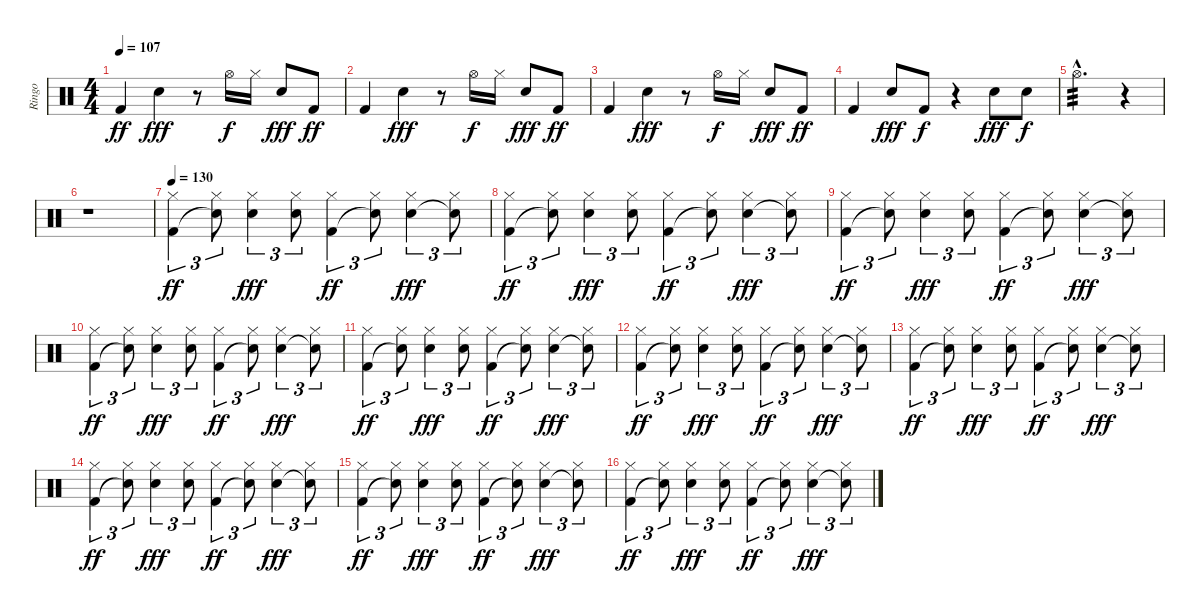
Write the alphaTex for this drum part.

\track ("Ringo" "Ringo") {instrument percussion}
\staff {score}
\articulation defaults
\ts (4 4)
\tempo 107
\clef neutral
\ks c "Kick (hit) 2".4{dy ff} "Snare (hit) 2".4{dy fff}
r.8 "Hi-Hat (open)".16{dy f} "Hi-Hat (closed)".16 "Snare (hit) 2".8{dy fff} "Kick (hit) 2".8{dy ff} |
"Kick (hit) 2".4 "Snare (hit) 2".4{dy fff} r.8 "Hi-Hat (open)".16{dy f} "Hi-Hat (closed)".16 "Snare (hit) 2".8{dy fff} "Kick (hit) 2".8{dy ff} |
"Kick (hit) 2".4 "Snare (hit) 2".4{dy fff} r.8 "Hi-Hat (open)".16{dy f} "Hi-Hat (closed)".16 "Snare (hit) 2".8{dy fff} "Kick (hit) 2".8{dy ff} |
"Kick (hit) 2".4 "Snare (hit) 2".8{dy fff} "Kick (hit) 2".8{dy f} r.4 "Snare (hit) 2".8{dy fff} "Snare (hit) 2".8{dy f} |
"Hi-Hat (open)"{hac}.2{d tp 3} r.4 |
r.1 |
\tempo 130
("Hi-Hat (closed)" "Kick (hit) 2").4{tu (3 2) dy ff} ("Hi-Hat (closed)" "Snare (hit)"{t}).8{tu (3 2)} ("Hi-Hat (closed)" "Electric Snare (hit)").4{tu (3 2) dy fff} ("Hi-Hat (closed)" "Electric Snare (hit)").8{tu (3 2)} ("Hi-Hat (closed)" "Kick (hit) 2").4{tu (3 2) dy ff} ("Hi-Hat (closed)" "Snare (hit)"{t}).8{tu (3 2)} ("Hi-Hat (closed)" "Electric Snare (hit)").4{tu (3 2) dy fff} ("Hi-Hat (closed)" "Snare (hit)"{t}).8{tu (3 2)} |
("Hi-Hat (closed)" "Kick (hit) 2").4{tu (3 2) dy ff} ("Hi-Hat (closed)" "Snare (hit)"{t}).8{tu (3 2)} ("Hi-Hat (closed)" "Electric Snare (hit)").4{tu (3 2) dy fff} ("Hi-Hat (closed)" "Electric Snare (hit)").8{tu (3 2)} ("Hi-Hat (closed)" "Kick (hit) 2").4{tu (3 2) dy ff} ("Hi-Hat (closed)" "Snare (hit)"{t}).8{tu (3 2)} ("Hi-Hat (closed)" "Electric Snare (hit)").4{tu (3 2) dy fff} ("Hi-Hat (closed)" "Snare (hit)"{t}).8{tu (3 2)} |
("Hi-Hat (closed)" "Kick (hit) 2").4{tu (3 2) dy ff} ("Hi-Hat (closed)" "Snare (hit)"{t}).8{tu (3 2)} ("Hi-Hat (closed)" "Electric Snare (hit)").4{tu (3 2) dy fff} ("Hi-Hat (closed)" "Electric Snare (hit)").8{tu (3 2)} ("Hi-Hat (closed)" "Kick (hit) 2").4{tu (3 2) dy ff} ("Hi-Hat (closed)" "Snare (hit)"{t}).8{tu (3 2)} ("Hi-Hat (closed)" "Electric Snare (hit)").4{tu (3 2) dy fff} ("Hi-Hat (closed)" "Snare (hit)"{t}).8{tu (3 2)} |
("Hi-Hat (closed)" "Kick (hit) 2").4{tu (3 2) dy ff} ("Hi-Hat (closed)" "Snare (hit)"{t}).8{tu (3 2)} ("Hi-Hat (closed)" "Electric Snare (hit)").4{tu (3 2) dy fff} ("Hi-Hat (closed)" "Electric Snare (hit)").8{tu (3 2)} ("Hi-Hat (closed)" "Kick (hit) 2").4{tu (3 2) dy ff} ("Hi-Hat (closed)" "Snare (hit)"{t}).8{tu (3 2)} ("Hi-Hat (closed)" "Electric Snare (hit)").4{tu (3 2) dy fff} ("Hi-Hat (closed)" "Snare (hit)"{t}).8{tu (3 2)} |
("Hi-Hat (closed)" "Kick (hit) 2").4{tu (3 2) dy ff} ("Hi-Hat (closed)" "Snare (hit)"{t}).8{tu (3 2)} ("Hi-Hat (closed)" "Electric Snare (hit)").4{tu (3 2) dy fff} ("Hi-Hat (closed)" "Electric Snare (hit)").8{tu (3 2)} ("Hi-Hat (closed)" "Kick (hit) 2").4{tu (3 2) dy ff} ("Hi-Hat (closed)" "Snare (hit)"{t}).8{tu (3 2)} ("Hi-Hat (closed)" "Electric Snare (hit)").4{tu (3 2) dy fff} ("Hi-Hat (closed)" "Snare (hit)"{t}).8{tu (3 2)} |
("Hi-Hat (closed)" "Kick (hit) 2").4{tu (3 2) dy ff} ("Hi-Hat (closed)" "Snare (hit)"{t}).8{tu (3 2)} ("Hi-Hat (closed)" "Electric Snare (hit)").4{tu (3 2) dy fff} ("Hi-Hat (closed)" "Electric Snare (hit)").8{tu (3 2)} ("Hi-Hat (closed)" "Kick (hit) 2").4{tu (3 2) dy ff} ("Hi-Hat (closed)" "Snare (hit)"{t}).8{tu (3 2)} ("Hi-Hat (closed)" "Electric Snare (hit)").4{tu (3 2) dy fff} ("Hi-Hat (closed)" "Snare (hit)"{t}).8{tu (3 2)} |
("Hi-Hat (closed)" "Kick (hit) 2").4{tu (3 2) dy ff} ("Hi-Hat (closed)" "Snare (hit)"{t}).8{tu (3 2)} ("Hi-Hat (closed)" "Electric Snare (hit)").4{tu (3 2) dy fff} ("Hi-Hat (closed)" "Electric Snare (hit)").8{tu (3 2)} ("Hi-Hat (closed)" "Kick (hit) 2").4{tu (3 2) dy ff} ("Hi-Hat (closed)" "Snare (hit)"{t}).8{tu (3 2)} ("Hi-Hat (closed)" "Electric Snare (hit)").4{tu (3 2) dy fff} ("Hi-Hat (closed)" "Snare (hit)"{t}).8{tu (3 2)} |
("Hi-Hat (closed)" "Kick (hit) 2").4{tu (3 2) dy ff} ("Hi-Hat (closed)" "Snare (hit)"{t}).8{tu (3 2)} ("Hi-Hat (closed)" "Electric Snare (hit)").4{tu (3 2) dy fff} ("Hi-Hat (closed)" "Electric Snare (hit)").8{tu (3 2)} ("Hi-Hat (closed)" "Kick (hit) 2").4{tu (3 2) dy ff} ("Hi-Hat (closed)" "Snare (hit)"{t}).8{tu (3 2)} ("Hi-Hat (closed)" "Electric Snare (hit)").4{tu (3 2) dy fff} ("Hi-Hat (closed)" "Snare (hit)"{t}).8{tu (3 2)} |
("Hi-Hat (closed)" "Kick (hit) 2").4{tu (3 2) dy ff} ("Hi-Hat (closed)" "Snare (hit)"{t}).8{tu (3 2)} ("Hi-Hat (closed)" "Electric Snare (hit)").4{tu (3 2) dy fff} ("Hi-Hat (closed)" "Electric Snare (hit)").8{tu (3 2)} ("Hi-Hat (closed)" "Kick (hit) 2").4{tu (3 2) dy ff} ("Hi-Hat (closed)" "Snare (hit)"{t}).8{tu (3 2)} ("Hi-Hat (closed)" "Electric Snare (hit)").4{tu (3 2) dy fff} ("Hi-Hat (closed)" "Snare (hit)"{t}).8{tu (3 2)} |
("Hi-Hat (closed)" "Kick (hit) 2").4{tu (3 2) dy ff} ("Hi-Hat (closed)" "Snare (hit)"{t}).8{tu (3 2)} ("Hi-Hat (closed)" "Electric Snare (hit)").4{tu (3 2) dy fff} ("Hi-Hat (closed)" "Electric Snare (hit)").8{tu (3 2)} ("Hi-Hat (closed)" "Kick (hit) 2").4{tu (3 2) dy ff} ("Hi-Hat (closed)" "Snare (hit)"{t}).8{tu (3 2)} ("Hi-Hat (closed)" "Electric Snare (hit)").4{tu (3 2) dy fff} ("Hi-Hat (closed)" "Snare (hit)"{t}).8{tu (3 2)}
